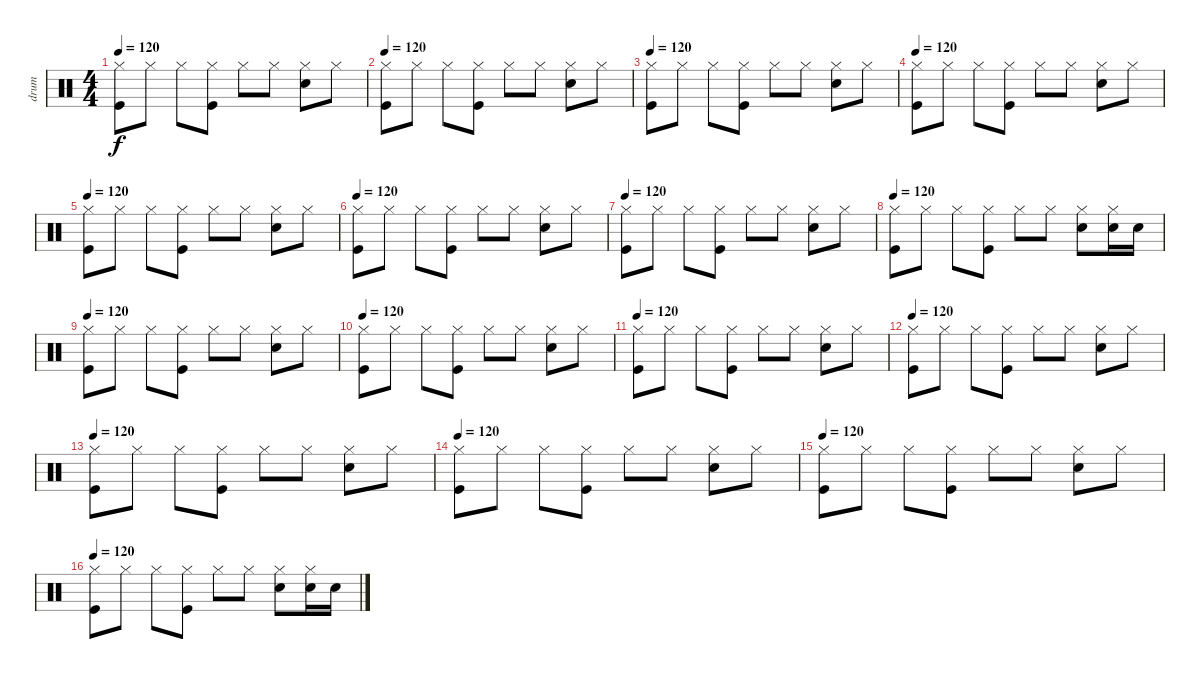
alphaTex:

\track ("drum" "drum") {instrument percussion}
\staff {score}
\articulation defaults
\ts (4 4)
\tempo 120
\clef neutral
\ks c
("Hi-Hat (closed)" "Kick (hit)").8{dy f} "Hi-Hat (closed)".8 "Hi-Hat (closed)".8 ("Kick (hit)" "Hi-Hat (closed)").8 "Hi-Hat (closed)".8 "Hi-Hat (closed)".8 ("Electric Snare (hit)" "Hi-Hat (closed)").8 "Hi-Hat (closed)".8 |
\tempo 120
("Hi-Hat (closed)" "Kick (hit)").8 "Hi-Hat (closed)".8 "Hi-Hat (closed)".8 ("Kick (hit)" "Hi-Hat (closed)").8 "Hi-Hat (closed)".8 "Hi-Hat (closed)".8 ("Electric Snare (hit)" "Hi-Hat (closed)").8 "Hi-Hat (closed)".8 |
\tempo 120
("Hi-Hat (closed)" "Kick (hit)").8 "Hi-Hat (closed)".8 "Hi-Hat (closed)".8 ("Kick (hit)" "Hi-Hat (closed)").8 "Hi-Hat (closed)".8 "Hi-Hat (closed)".8 ("Electric Snare (hit)" "Hi-Hat (closed)").8 "Hi-Hat (closed)".8 |
\tempo 120
("Hi-Hat (closed)" "Kick (hit)").8 "Hi-Hat (closed)".8 "Hi-Hat (closed)".8 ("Kick (hit)" "Hi-Hat (closed)").8 "Hi-Hat (closed)".8 "Hi-Hat (closed)".8 ("Electric Snare (hit)" "Hi-Hat (closed)").8 "Hi-Hat (closed)".8 |
\tempo 120
("Hi-Hat (closed)" "Kick (hit)").8 "Hi-Hat (closed)".8 "Hi-Hat (closed)".8 ("Kick (hit)" "Hi-Hat (closed)").8 "Hi-Hat (closed)".8 "Hi-Hat (closed)".8 ("Electric Snare (hit)" "Hi-Hat (closed)").8 "Hi-Hat (closed)".8 |
\tempo 120
("Hi-Hat (closed)" "Kick (hit)").8 "Hi-Hat (closed)".8 "Hi-Hat (closed)".8 ("Kick (hit)" "Hi-Hat (closed)").8 "Hi-Hat (closed)".8 "Hi-Hat (closed)".8 ("Electric Snare (hit)" "Hi-Hat (closed)").8 "Hi-Hat (closed)".8 |
\tempo 120
("Hi-Hat (closed)" "Kick (hit)").8 "Hi-Hat (closed)".8 "Hi-Hat (closed)".8 ("Kick (hit)" "Hi-Hat (closed)").8 "Hi-Hat (closed)".8 "Hi-Hat (closed)".8 ("Electric Snare (hit)" "Hi-Hat (closed)").8 "Hi-Hat (closed)".8 |
\tempo 120
("Hi-Hat (closed)" "Kick (hit)").8 "Hi-Hat (closed)".8 "Hi-Hat (closed)".8 ("Kick (hit)" "Hi-Hat (closed)").8 "Hi-Hat (closed)".8 "Hi-Hat (closed)".8 ("Electric Snare (hit)" "Hi-Hat (closed)").8 ("Electric Snare (hit)" "Hi-Hat (closed)").16 "Electric Snare (hit)".16 |
\tempo 120
("Hi-Hat (closed)" "Kick (hit)").8 "Hi-Hat (closed)".8 "Hi-Hat (closed)".8 ("Kick (hit)" "Hi-Hat (closed)").8 "Hi-Hat (closed)".8 "Hi-Hat (closed)".8 ("Electric Snare (hit)" "Hi-Hat (closed)").8 "Hi-Hat (closed)".8 |
\tempo 120
("Hi-Hat (closed)" "Kick (hit)").8 "Hi-Hat (closed)".8 "Hi-Hat (closed)".8 ("Kick (hit)" "Hi-Hat (closed)").8 "Hi-Hat (closed)".8 "Hi-Hat (closed)".8 ("Electric Snare (hit)" "Hi-Hat (closed)").8 "Hi-Hat (closed)".8 |
\tempo 120
("Hi-Hat (closed)" "Kick (hit)").8 "Hi-Hat (closed)".8 "Hi-Hat (closed)".8 ("Kick (hit)" "Hi-Hat (closed)").8 "Hi-Hat (closed)".8 "Hi-Hat (closed)".8 ("Electric Snare (hit)" "Hi-Hat (closed)").8 "Hi-Hat (closed)".8 |
\tempo 120
("Hi-Hat (closed)" "Kick (hit)").8 "Hi-Hat (closed)".8 "Hi-Hat (closed)".8 ("Kick (hit)" "Hi-Hat (closed)").8 "Hi-Hat (closed)".8 "Hi-Hat (closed)".8 ("Electric Snare (hit)" "Hi-Hat (closed)").8 "Hi-Hat (closed)".8 |
\tempo 120
("Hi-Hat (closed)" "Kick (hit)").8 "Hi-Hat (closed)".8 "Hi-Hat (closed)".8 ("Kick (hit)" "Hi-Hat (closed)").8 "Hi-Hat (closed)".8 "Hi-Hat (closed)".8 ("Electric Snare (hit)" "Hi-Hat (closed)").8 "Hi-Hat (closed)".8 |
\tempo 120
("Hi-Hat (closed)" "Kick (hit)").8 "Hi-Hat (closed)".8 "Hi-Hat (closed)".8 ("Kick (hit)" "Hi-Hat (closed)").8 "Hi-Hat (closed)".8 "Hi-Hat (closed)".8 ("Electric Snare (hit)" "Hi-Hat (closed)").8 "Hi-Hat (closed)".8 |
\tempo 120
("Hi-Hat (closed)" "Kick (hit)").8 "Hi-Hat (closed)".8 "Hi-Hat (closed)".8 ("Kick (hit)" "Hi-Hat (closed)").8 "Hi-Hat (closed)".8 "Hi-Hat (closed)".8 ("Electric Snare (hit)" "Hi-Hat (closed)").8 "Hi-Hat (closed)".8 |
\tempo 120
("Hi-Hat (closed)" "Kick (hit)").8 "Hi-Hat (closed)".8 "Hi-Hat (closed)".8 ("Kick (hit)" "Hi-Hat (closed)").8 "Hi-Hat (closed)".8 "Hi-Hat (closed)".8 ("Electric Snare (hit)" "Hi-Hat (closed)").8 ("Electric Snare (hit)" "Hi-Hat (closed)").16 "Electric Snare (hit)".16
